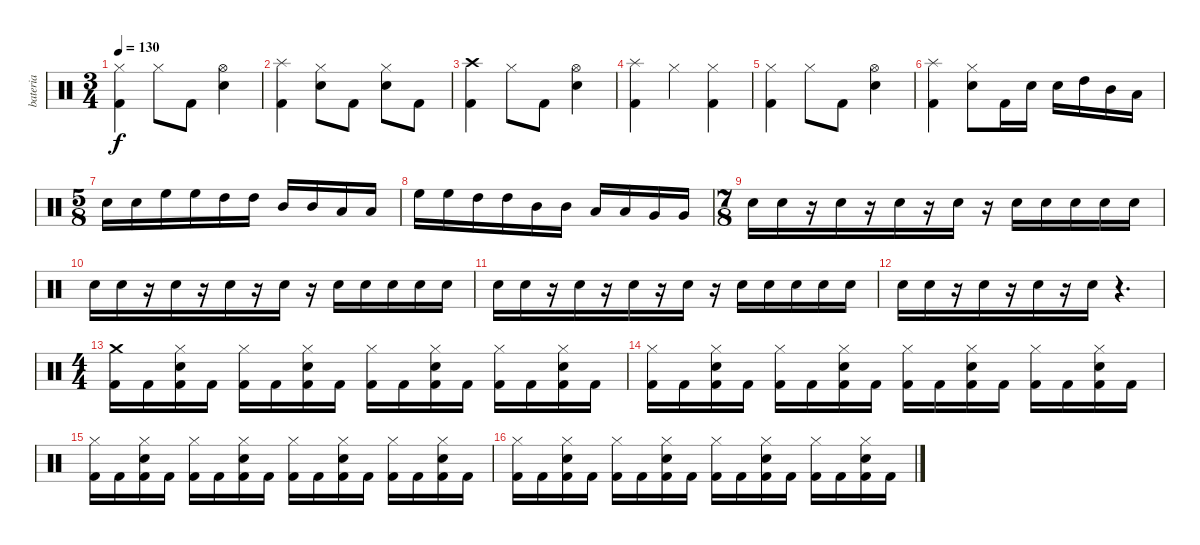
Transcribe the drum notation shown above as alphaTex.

\track ("bateria" "bateria") {instrument percussion}
\staff {score}
\articulation defaults
\ts (3 4)
\tempo 130
\clef neutral
\ks c
("Hi-Hat (closed)" "Kick (hit) 2").4{dy f} "Hi-Hat (closed)".8 "Kick (hit) 2".8 ("Hi-Hat (open)" "Electric Snare (hit)").4 |
("Splash (hit)" "Kick (hit) 2").4 ("Hi-Hat (closed)" "Electric Snare (hit)").8 "Kick (hit) 2".8 ("Hi-Hat (closed)" "Electric Snare (hit)").8 "Kick (hit) 2".8 |
("Crash high (hit)" "Kick (hit) 2").4 "Hi-Hat (closed)".8 "Kick (hit) 2".8 ("Hi-Hat (open)" "Electric Snare (hit)").4 |
("Splash (hit)" "Kick (hit) 2").4 "Hi-Hat (closed)".4 ("Hi-Hat (closed)" "Kick (hit) 2").4 |
("Hi-Hat (closed)" "Kick (hit) 2").4 "Hi-Hat (closed)".8 "Kick (hit) 2".8 ("Hi-Hat (open)" "Electric Snare (hit)").4 |
("Splash (hit)" "Kick (hit) 2").4 ("Hi-Hat (closed)" "Electric Snare (hit)").8 "Kick (hit) 2".16 "Electric Snare (hit)".16 "Electric Snare (hit)".16 "High Tom (hit)".16 "Mid Tom (hit)".16 "Low Tom (hit)".16 |
\ts (5 8)
"Electric Snare (hit)".16 "Electric Snare (hit)".16 "High Floor Tom (hit)".16 "High Floor Tom (hit)".16 "High Tom (hit)".16 "High Tom (hit)".16 "Mid Tom (hit)".16 "Mid Tom (hit)".16 "Low Tom (hit)".16 "Low Tom (hit)".16 |
"High Floor Tom (hit)".16 "High Floor Tom (hit)".16 "High Tom (hit)".16 "High Tom (hit)".16 "Mid Tom (hit)".16 "Mid Tom (hit)".16 "Low Tom (hit)".16 "Low Tom (hit)".16 "Very Low Tom (hit)".16 "Very Low Tom (hit)".16 |
\ts (7 8)
"Electric Snare (hit)".16{volume 8} "Electric Snare (hit)".16{volume 14} r.16 "Electric Snare (hit)".16 r.16 "Electric Snare (hit)".16 r.16 "Electric Snare (hit)".16 r.16 "Electric Snare (hit)".16 "Electric Snare (hit)".16 "Electric Snare (hit)".16 "Electric Snare (hit)".16 "Electric Snare (hit)".16 |
"Electric Snare (hit)".16 "Electric Snare (hit)".16 r.16 "Electric Snare (hit)".16 r.16 "Electric Snare (hit)".16 r.16 "Electric Snare (hit)".16 r.16 "Electric Snare (hit)".16 "Electric Snare (hit)".16 "Electric Snare (hit)".16 "Electric Snare (hit)".16 "Electric Snare (hit)".16 |
"Electric Snare (hit)".16 "Electric Snare (hit)".16 r.16 "Electric Snare (hit)".16 r.16 "Electric Snare (hit)".16 r.16 "Electric Snare (hit)".16 r.16 "Electric Snare (hit)".16 "Electric Snare (hit)".16 "Electric Snare (hit)".16 "Electric Snare (hit)".16 "Electric Snare (hit)".16 |
"Electric Snare (hit)".16 "Electric Snare (hit)".16 r.16 "Electric Snare (hit)".16 r.16 "Electric Snare (hit)".16 r.16 "Electric Snare (hit)".16 r.4{d} |
\ts (4 4)
("Crash medium (hit)" "Kick (hit) 2").16 "Kick (hit) 2".16 ("Hi-Hat (closed)" "Electric Snare (hit)" "Kick (hit) 2").16 "Kick (hit) 2".16 ("Hi-Hat (closed)" "Kick (hit) 2").16 "Kick (hit) 2".16 ("Hi-Hat (closed)" "Electric Snare (hit)" "Kick (hit) 2").16 "Kick (hit) 2".16 ("Hi-Hat (closed)" "Kick (hit) 2").16 "Kick (hit) 2".16 ("Hi-Hat (closed)" "Electric Snare (hit)" "Kick (hit) 2").16 "Kick (hit) 2".16 ("Hi-Hat (closed)" "Kick (hit) 2").16 "Kick (hit) 2".16 ("Hi-Hat (closed)" "Electric Snare (hit)" "Kick (hit) 2").16 "Kick (hit) 2".16 |
("Hi-Hat (closed)" "Kick (hit) 2").16 "Kick (hit) 2".16 ("Hi-Hat (closed)" "Electric Snare (hit)" "Kick (hit) 2").16 "Kick (hit) 2".16 ("Hi-Hat (closed)" "Kick (hit) 2").16 "Kick (hit) 2".16 ("Hi-Hat (closed)" "Electric Snare (hit)" "Kick (hit) 2").16 "Kick (hit) 2".16 ("Hi-Hat (closed)" "Kick (hit) 2").16 "Kick (hit) 2".16 ("Hi-Hat (closed)" "Electric Snare (hit)" "Kick (hit) 2").16 "Kick (hit) 2".16 ("Hi-Hat (closed)" "Kick (hit) 2").16 "Kick (hit) 2".16 ("Hi-Hat (closed)" "Electric Snare (hit)" "Kick (hit) 2").16 "Kick (hit) 2".16 |
("Hi-Hat (closed)" "Kick (hit) 2").16 "Kick (hit) 2".16 ("Hi-Hat (closed)" "Electric Snare (hit)" "Kick (hit) 2").16 "Kick (hit) 2".16 ("Hi-Hat (closed)" "Kick (hit) 2").16 "Kick (hit) 2".16 ("Hi-Hat (closed)" "Electric Snare (hit)" "Kick (hit) 2").16 "Kick (hit) 2".16 ("Hi-Hat (closed)" "Kick (hit) 2").16 "Kick (hit) 2".16 ("Hi-Hat (closed)" "Electric Snare (hit)" "Kick (hit) 2").16 "Kick (hit) 2".16 ("Hi-Hat (closed)" "Kick (hit) 2").16 "Kick (hit) 2".16 ("Hi-Hat (closed)" "Electric Snare (hit)" "Kick (hit) 2").16 "Kick (hit) 2".16 |
("Hi-Hat (closed)" "Kick (hit) 2").16 "Kick (hit) 2".16 ("Hi-Hat (closed)" "Electric Snare (hit)" "Kick (hit) 2").16 "Kick (hit) 2".16 ("Hi-Hat (closed)" "Kick (hit) 2").16 "Kick (hit) 2".16 ("Hi-Hat (closed)" "Electric Snare (hit)" "Kick (hit) 2").16 "Kick (hit) 2".16 ("Hi-Hat (closed)" "Kick (hit) 2").16 "Kick (hit) 2".16 ("Hi-Hat (closed)" "Electric Snare (hit)" "Kick (hit) 2").16 "Kick (hit) 2".16 ("Hi-Hat (closed)" "Kick (hit) 2").16 "Kick (hit) 2".16 ("Hi-Hat (closed)" "Electric Snare (hit)" "Kick (hit) 2").16 "Kick (hit) 2".16
